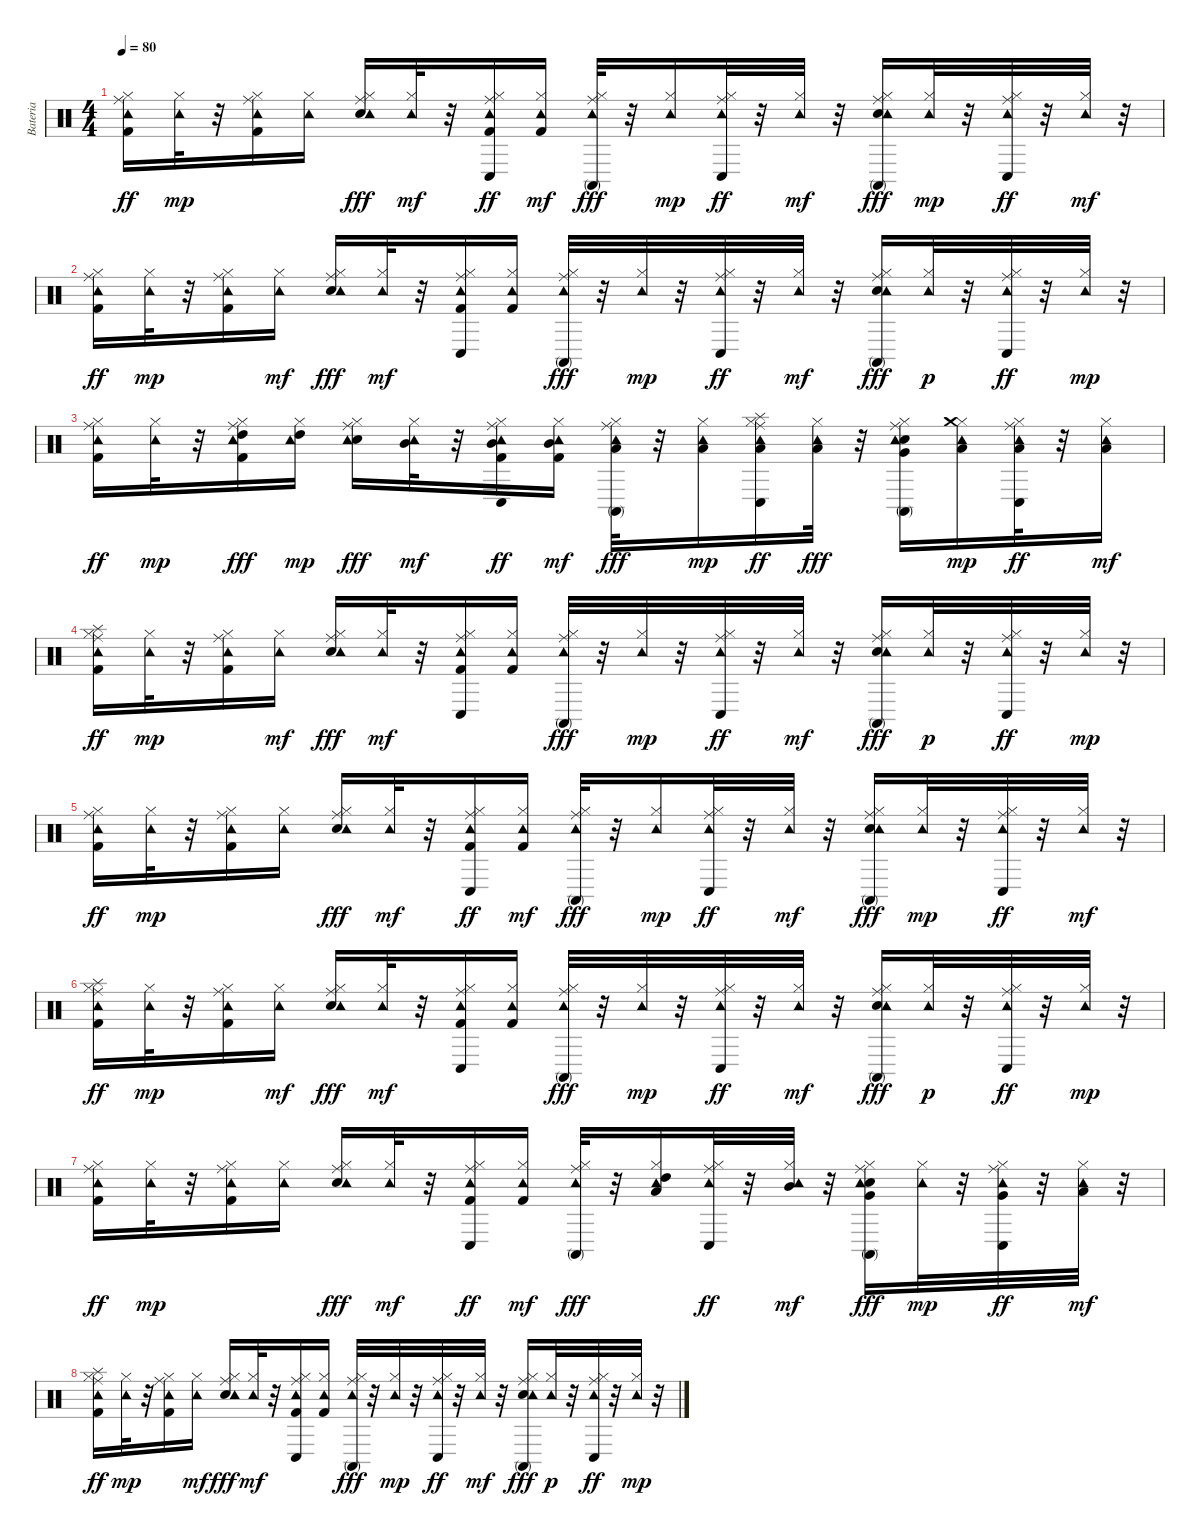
\track ("Bateria" "Bateria") {instrument percussion}
\staff {score}
\articulation defaults
\ts (4 4)
\tempo 80
\clef neutral
\ks c
("Hi-Hat (closed)" "Ride (middle)" "Tambourine (hit)" "Kick (hit) 2").16{dy ff} ("Hi-Hat (closed)" "Tambourine (hit)").32{dy mp} r.32 ("Hi-Hat (closed)" "Ride (middle)" "Tambourine (hit)" "Kick (hit) 2").16 ("Hi-Hat (closed)" "Tambourine (hit)").16 ("Electric Snare (hit)" "Hi-Hat (closed)" "Ride (middle)" "Tambourine (hit)").16{dy fff} ("Hi-Hat (closed)" "Tambourine (hit)").32{dy mf} r.32 ("Hi-Hat (closed)" "Conga low (hit)" "Ride (middle)" "Tambourine (hit)" "Kick (hit) 2").16{dy ff} ("Hi-Hat (closed)" "Tambourine (hit)" "Kick (hit) 2").16{dy mf} ("Hi-Hat (closed)" "Conga high (mute)" "Ride (middle)" "Tambourine (hit)").32{dy fff} r.32 ("Hi-Hat (closed)" "Tambourine (hit)").16{dy mp} ("Hi-Hat (closed)" "Conga low (hit)" "Ride (middle)" "Tambourine (hit)").32{dy ff} r.32 ("Hi-Hat (closed)" "Tambourine (hit)").32{dy mf} r.32 ("Electric Snare (hit)" "Hi-Hat (closed)" "Conga high (mute)" "Ride (middle)" "Tambourine (hit)").16{dy fff} ("Hi-Hat (closed)" "Tambourine (hit)").32{dy mp} r.32 ("Hi-Hat (closed)" "Conga low (hit)" "Ride (middle)" "Tambourine (hit)").32{dy ff} r.32 ("Hi-Hat (closed)" "Tambourine (hit)").32{dy mf} r.32 |
("Hi-Hat (closed)" "Ride (middle)" "Tambourine (hit)" "Kick (hit) 2").16{dy ff} ("Hi-Hat (closed)" "Tambourine (hit)").32{dy mp} r.32 ("Hi-Hat (closed)" "Ride (middle)" "Tambourine (hit)" "Kick (hit) 2").16 ("Hi-Hat (closed)" "Tambourine (hit)").16{dy mf} ("Electric Snare (hit)" "Hi-Hat (closed)" "Ride (middle)" "Tambourine (hit)").16{dy fff} ("Hi-Hat (closed)" "Tambourine (hit)").32{dy mf} r.32 ("Hi-Hat (closed)" "Conga low (hit)" "Ride (middle)" "Tambourine (hit)" "Kick (hit) 2").16 ("Hi-Hat (closed)" "Tambourine (hit)" "Kick (hit) 2").16 ("Hi-Hat (closed)" "Conga high (mute)" "Ride (middle)" "Tambourine (hit)").32{dy fff} r.32 ("Hi-Hat (closed)" "Tambourine (hit)").32{dy mp} r.32 ("Hi-Hat (closed)" "Conga low (hit)" "Ride (middle)" "Tambourine (hit)").32{dy ff} r.32 ("Hi-Hat (closed)" "Tambourine (hit)").32{dy mf} r.32 ("Electric Snare (hit)" "Hi-Hat (closed)" "Conga high (mute)" "Ride (middle)" "Tambourine (hit)").16{dy fff} ("Hi-Hat (closed)" "Tambourine (hit)").32{dy p} r.32 ("Hi-Hat (closed)" "Conga low (hit)" "Ride (middle)" "Tambourine (hit)").32{dy ff} r.32 ("Hi-Hat (closed)" "Tambourine (hit)").32{dy mp} r.32 |
("Hi-Hat (closed)" "Ride (middle)" "Tambourine (hit)" "Kick (hit) 2").16{dy ff} ("Hi-Hat (closed)" "Tambourine (hit)").32{dy mp} r.32 ("Hi-Hat (closed)" "Ride (middle)" "High Tom (hit)" "Tambourine (hit)" "Kick (hit) 2").16{dy fff} ("Hi-Hat (closed)" "High Tom (hit)" "Tambourine (hit)").16{dy mp} ("Electric Snare (hit)" "Hi-Hat (closed)" "Ride (middle)" "Tambourine (hit)").16{dy fff} ("Hi-Hat (closed)" "Tambourine (hit)" "Mid Tom (hit)").32{dy mf} r.32 ("Hi-Hat (closed)" "Conga low (hit)" "Ride (middle)" "Tambourine (hit)" "Kick (hit) 2" "Mid Tom (hit)").16{dy ff} ("Mid Tom (hit)" "Hi-Hat (closed)" "Tambourine (hit)" "Kick (hit) 2").16{dy mf} ("Hi-Hat (closed)" "Conga high (mute)" "Ride (middle)" "Tambourine (hit)" "Low Tom (hit)").32{dy fff} r.32 ("Low Tom (hit)" "Hi-Hat (closed)" "Tambourine (hit)").16{dy mp} ("Low Tom (hit)" "Hi-Hat (closed)" "Conga low (hit)" "Ride (middle)" "Splash (hit)" "Tambourine (hit)").16{dy ff} ("Hi-Hat (closed)" "Tambourine (hit)" "Low Tom (hit)").32{dy fff} r.32 ("Electric Snare (hit)" "Hi-Hat (closed)" "Conga high (mute)" "Ride (middle)" "Very Low Tom (hit)" "Tambourine (hit)").16 ("Hi-Hat (closed)" "Low Floor Tom (hit)" "Crash medium (hit)" "Tambourine (hit)").16{dy mp} ("Hi-Hat (closed)" "Conga low (hit)" "Ride (middle)" "Low Floor Tom (hit)" "Tambourine (hit)").32{dy ff} r.32 ("Hi-Hat (closed)" "Low Floor Tom (hit)" "Tambourine (hit)").16{dy mf} |
("Hi-Hat (closed)" "Ride (middle)" "Splash (hit)" "Tambourine (hit)" "Kick (hit) 2").16{dy ff} ("Hi-Hat (closed)" "Tambourine (hit)").32{dy mp} r.32 ("Hi-Hat (closed)" "Ride (middle)" "Tambourine (hit)" "Kick (hit) 2").16 ("Hi-Hat (closed)" "Tambourine (hit)").16{dy mf} ("Electric Snare (hit)" "Hi-Hat (closed)" "Ride (middle)" "Tambourine (hit)").16{dy fff} ("Hi-Hat (closed)" "Tambourine (hit)").32{dy mf} r.32 ("Hi-Hat (closed)" "Conga low (hit)" "Ride (middle)" "Tambourine (hit)" "Kick (hit) 2").16 ("Hi-Hat (closed)" "Tambourine (hit)" "Kick (hit) 2").16 ("Hi-Hat (closed)" "Conga high (mute)" "Ride (middle)" "Tambourine (hit)").32{dy fff} r.32 ("Hi-Hat (closed)" "Tambourine (hit)").32{dy mp} r.32 ("Hi-Hat (closed)" "Conga low (hit)" "Ride (middle)" "Tambourine (hit)").32{dy ff} r.32 ("Hi-Hat (closed)" "Tambourine (hit)").32{dy mf} r.32 ("Electric Snare (hit)" "Hi-Hat (closed)" "Conga high (mute)" "Ride (middle)" "Tambourine (hit)").16{dy fff} ("Hi-Hat (closed)" "Tambourine (hit)").32{dy p} r.32 ("Hi-Hat (closed)" "Conga low (hit)" "Ride (middle)" "Tambourine (hit)").32{dy ff} r.32 ("Hi-Hat (closed)" "Tambourine (hit)").32{dy mp} r.32 |
("Hi-Hat (closed)" "Ride (middle)" "Tambourine (hit)" "Kick (hit) 2").16{dy ff} ("Hi-Hat (closed)" "Tambourine (hit)").32{dy mp} r.32 ("Hi-Hat (closed)" "Ride (middle)" "Tambourine (hit)" "Kick (hit) 2").16 ("Hi-Hat (closed)" "Tambourine (hit)").16 ("Electric Snare (hit)" "Hi-Hat (closed)" "Ride (middle)" "Tambourine (hit)").16{dy fff} ("Hi-Hat (closed)" "Tambourine (hit)").32{dy mf} r.32 ("Hi-Hat (closed)" "Conga low (hit)" "Ride (middle)" "Tambourine (hit)" "Kick (hit) 2").16{dy ff} ("Hi-Hat (closed)" "Tambourine (hit)" "Kick (hit) 2").16{dy mf} ("Hi-Hat (closed)" "Conga high (mute)" "Ride (middle)" "Tambourine (hit)").32{dy fff} r.32 ("Hi-Hat (closed)" "Tambourine (hit)").16{dy mp} ("Hi-Hat (closed)" "Conga low (hit)" "Ride (middle)" "Tambourine (hit)").32{dy ff} r.32 ("Hi-Hat (closed)" "Tambourine (hit)").32{dy mf} r.32 ("Electric Snare (hit)" "Hi-Hat (closed)" "Conga high (mute)" "Ride (middle)" "Tambourine (hit)").16{dy fff} ("Hi-Hat (closed)" "Tambourine (hit)").32{dy mp} r.32 ("Hi-Hat (closed)" "Conga low (hit)" "Ride (middle)" "Tambourine (hit)").32{dy ff} r.32 ("Hi-Hat (closed)" "Tambourine (hit)").32{dy mf} r.32 |
("Hi-Hat (closed)" "Ride (middle)" "Splash (hit)" "Tambourine (hit)" "Kick (hit) 2").16{dy ff} ("Hi-Hat (closed)" "Tambourine (hit)").32{dy mp} r.32 ("Hi-Hat (closed)" "Ride (middle)" "Tambourine (hit)" "Kick (hit) 2").16 ("Hi-Hat (closed)" "Tambourine (hit)").16{dy mf} ("Electric Snare (hit)" "Hi-Hat (closed)" "Ride (middle)" "Tambourine (hit)").16{dy fff} ("Hi-Hat (closed)" "Tambourine (hit)").32{dy mf} r.32 ("Hi-Hat (closed)" "Conga low (hit)" "Ride (middle)" "Tambourine (hit)" "Kick (hit) 2").16 ("Hi-Hat (closed)" "Tambourine (hit)" "Kick (hit) 2").16 ("Hi-Hat (closed)" "Conga high (mute)" "Ride (middle)" "Tambourine (hit)").32{dy fff} r.32 ("Hi-Hat (closed)" "Tambourine (hit)").32{dy mp} r.32 ("Hi-Hat (closed)" "Conga low (hit)" "Ride (middle)" "Tambourine (hit)").32{dy ff} r.32 ("Hi-Hat (closed)" "Tambourine (hit)").32{dy mf} r.32 ("Electric Snare (hit)" "Hi-Hat (closed)" "Conga high (mute)" "Ride (middle)" "Tambourine (hit)").16{dy fff} ("Hi-Hat (closed)" "Tambourine (hit)").32{dy p} r.32 ("Hi-Hat (closed)" "Conga low (hit)" "Ride (middle)" "Tambourine (hit)").32{dy ff} r.32 ("Hi-Hat (closed)" "Tambourine (hit)").32{dy mp} r.32 |
("Hi-Hat (closed)" "Ride (middle)" "Tambourine (hit)" "Kick (hit) 2").16{dy ff} ("Hi-Hat (closed)" "Tambourine (hit)").32{dy mp} r.32 ("Hi-Hat (closed)" "Ride (middle)" "Tambourine (hit)" "Kick (hit) 2").16 ("Hi-Hat (closed)" "Tambourine (hit)").16 ("Electric Snare (hit)" "Hi-Hat (closed)" "Ride (middle)" "Tambourine (hit)").16{dy fff} ("Hi-Hat (closed)" "Tambourine (hit)").32{dy mf} r.32 ("Hi-Hat (closed)" "Conga low (hit)" "Ride (middle)" "Tambourine (hit)" "Kick (hit) 2").16{dy ff} ("Hi-Hat (closed)" "Tambourine (hit)" "Kick (hit) 2").16{dy mf} ("Hi-Hat (closed)" "Conga high (mute)" "Ride (middle)" "Tambourine (hit)").32{dy fff} r.32 ("Hi-Hat (closed)" "Tambourine (hit)" "High Tom (hit)" "Low Tom (hit)").16 ("Hi-Hat (closed)" "Conga low (hit)" "Ride (middle)" "Tambourine (hit)").32{dy ff} r.32 ("Hi-Hat (closed)" "Tambourine (hit)" "Mid Tom (hit)").32{dy mf} r.32 ("Very Low Tom (hit)" "Electric Snare (hit)" "Hi-Hat (closed)" "Conga high (mute)" "Ride (middle)" "Tambourine (hit)").16{dy fff} ("Hi-Hat (closed)" "Tambourine (hit)").32{dy mp} r.32 ("Very Low Tom (hit)" "Hi-Hat (closed)" "Conga low (hit)" "Ride (middle)" "Tambourine (hit)").32{dy ff} r.32 ("Low Floor Tom (hit)" "Hi-Hat (closed)" "Tambourine (hit)").32{dy mf} r.32 |
("Hi-Hat (closed)" "Ride (middle)" "Tambourine (hit)" "Kick (hit) 2" "Splash (hit)").16{dy ff} ("Hi-Hat (closed)" "Tambourine (hit)").32{dy mp} r.32 ("Hi-Hat (closed)" "Ride (middle)" "Tambourine (hit)" "Kick (hit) 2").16 ("Hi-Hat (closed)" "Tambourine (hit)").16{dy mf} ("Electric Snare (hit)" "Hi-Hat (closed)" "Ride (middle)" "Tambourine (hit)").16{dy fff} ("Hi-Hat (closed)" "Tambourine (hit)").32{dy mf} r.32 ("Hi-Hat (closed)" "Conga low (hit)" "Ride (middle)" "Tambourine (hit)" "Kick (hit) 2").16 ("Hi-Hat (closed)" "Tambourine (hit)" "Kick (hit) 2").16 ("Hi-Hat (closed)" "Conga high (mute)" "Ride (middle)" "Tambourine (hit)").32{dy fff} r.32 ("Hi-Hat (closed)" "Tambourine (hit)").32{dy mp} r.32 ("Hi-Hat (closed)" "Conga low (hit)" "Ride (middle)" "Tambourine (hit)").32{dy ff} r.32 ("Hi-Hat (closed)" "Tambourine (hit)").32{dy mf} r.32 ("Electric Snare (hit)" "Hi-Hat (closed)" "Conga high (mute)" "Ride (middle)" "Tambourine (hit)").16{dy fff} ("Hi-Hat (closed)" "Tambourine (hit)").32{dy p} r.32 ("Hi-Hat (closed)" "Conga low (hit)" "Ride (middle)" "Tambourine (hit)").32{dy ff} r.32 ("Hi-Hat (closed)" "Tambourine (hit)").32{dy mp} r.32
